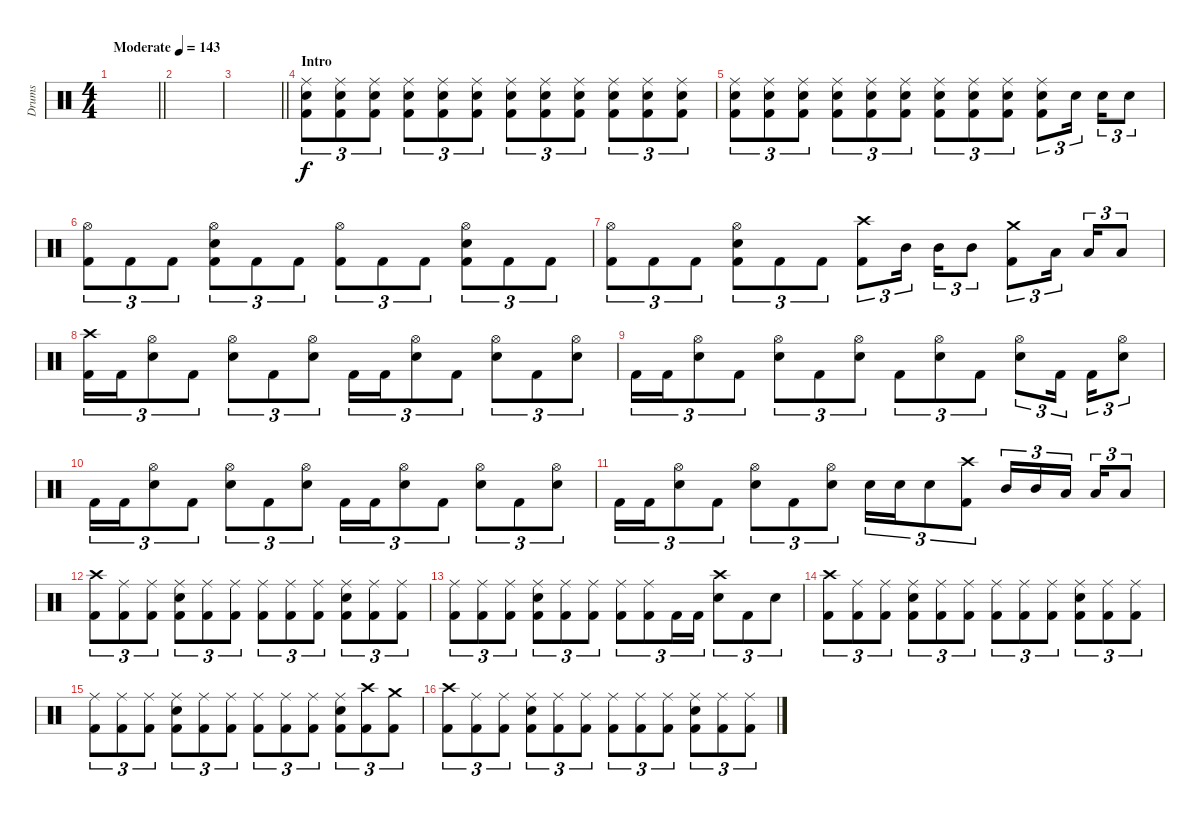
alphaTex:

\track ("Drums" "Drums") {instrument percussion}
\staff {score}
\articulation defaults
\ts (4 4)
\tempo (143 "Moderate")
\clef neutral
\barLineRight lightlight
\ks c
|
|
\barLineRight lightlight
|
\section ("" "Intro")
("Ride (middle)" "Snare (hit) 2" "Kick (hit) 2").8{tu (3 2)} ("Ride (middle)" "Snare (hit) 2" "Kick (hit) 2").8{tu (3 2)} ("Ride (middle)" "Snare (hit) 2" "Kick (hit) 2").8{tu (3 2)} ("Ride (middle)" "Snare (hit) 2" "Kick (hit) 2").8{tu (3 2)} ("Ride (middle)" "Snare (hit) 2" "Kick (hit) 2").8{tu (3 2)} ("Ride (middle)" "Snare (hit) 2" "Kick (hit) 2").8{tu (3 2)} ("Ride (middle)" "Snare (hit) 2" "Kick (hit) 2").8{tu (3 2)} ("Ride (middle)" "Snare (hit) 2" "Kick (hit) 2").8{tu (3 2)} ("Ride (middle)" "Snare (hit) 2" "Kick (hit) 2").8{tu (3 2)} ("Ride (middle)" "Snare (hit) 2" "Kick (hit) 2").8{tu (3 2)} ("Ride (middle)" "Snare (hit) 2" "Kick (hit) 2").8{tu (3 2)} ("Ride (middle)" "Snare (hit) 2" "Kick (hit) 2").8{tu (3 2)} |
("Ride (middle)" "Snare (hit) 2" "Kick (hit) 2").8{tu (3 2)} ("Ride (middle)" "Snare (hit) 2" "Kick (hit) 2").8{tu (3 2)} ("Ride (middle)" "Snare (hit) 2" "Kick (hit) 2").8{tu (3 2)} ("Ride (middle)" "Snare (hit) 2" "Kick (hit) 2").8{tu (3 2)} ("Ride (middle)" "Snare (hit) 2" "Kick (hit) 2").8{tu (3 2)} ("Ride (middle)" "Snare (hit) 2" "Kick (hit) 2").8{tu (3 2)} ("Ride (middle)" "Snare (hit) 2" "Kick (hit) 2").8{tu (3 2)} ("Ride (middle)" "Snare (hit) 2" "Kick (hit) 2").8{tu (3 2)} ("Ride (middle)" "Snare (hit) 2" "Kick (hit) 2").8{tu (3 2)} ("Ride (middle)" "Snare (hit) 2" "Kick (hit) 2").8{tu (3 2)} "Snare (hit) 2".16{tu (3 2) beam splitsecondary} "Snare (hit) 2".16{tu (3 2)} "Snare (hit) 2".8{tu (3 2)} |
("Hi-Hat (open)" "Kick (hit) 2").8{tu (3 2)} "Kick (hit) 2".8{tu (3 2)} "Kick (hit) 2".8{tu (3 2)} ("Hi-Hat (open)" "Snare (hit) 2" "Kick (hit) 2").8{tu (3 2)} "Kick (hit) 2".8{tu (3 2)} "Kick (hit) 2".8{tu (3 2)} ("Hi-Hat (open)" "Kick (hit) 2").8{tu (3 2)} "Kick (hit) 2".8{tu (3 2)} "Kick (hit) 2".8{tu (3 2)} ("Hi-Hat (open)" "Snare (hit) 2" "Kick (hit) 2").8{tu (3 2)} "Kick (hit) 2".8{tu (3 2)} "Kick (hit) 2".8{tu (3 2)} |
("Hi-Hat (open)" "Kick (hit) 2").8{tu (3 2)} "Kick (hit) 2".8{tu (3 2)} "Kick (hit) 2".8{tu (3 2)} ("Hi-Hat (open)" "Snare (hit) 2" "Kick (hit) 2").8{tu (3 2)} "Kick (hit) 2".8{tu (3 2)} "Kick (hit) 2".8{tu (3 2)} ("Crash high (hit)" "Kick (hit) 2").8{tu (3 2)} "Mid Tom (hit)".16{tu (3 2) beam splitsecondary} "Mid Tom (hit)".16{tu (3 2)} "Mid Tom (hit)".8{tu (3 2)} ("Crash medium (hit)" "Kick (hit) 2").8{tu (3 2)} "Low Tom (hit)".16{tu (3 2) beam splitsecondary} "Low Tom (hit)".16{tu (3 2)} "Low Tom (hit)".8{tu (3 2)} |
("Crash high (hit)" "Kick (hit) 2").16{tu (3 2)} "Kick (hit) 2".16{tu (3 2)} ("Hi-Hat (open)" "Snare (hit) 2").8{tu (3 2)} "Kick (hit) 2".8{tu (3 2)} ("Hi-Hat (open)" "Snare (hit) 2").8{tu (3 2)} "Kick (hit) 2".8{tu (3 2)} ("Hi-Hat (open)" "Snare (hit) 2").8{tu (3 2)} "Kick (hit) 2".16{tu (3 2)} "Kick (hit) 2".16{tu (3 2)} ("Hi-Hat (open)" "Snare (hit) 2").8{tu (3 2)} "Kick (hit) 2".8{tu (3 2)} ("Hi-Hat (open)" "Snare (hit) 2").8{tu (3 2)} "Kick (hit) 2".8{tu (3 2)} ("Hi-Hat (open)" "Snare (hit) 2").8{tu (3 2)} |
"Kick (hit) 2".16{tu (3 2)} "Kick (hit) 2".16{tu (3 2)} ("Hi-Hat (open)" "Snare (hit) 2").8{tu (3 2)} "Kick (hit) 2".8{tu (3 2)} ("Hi-Hat (open)" "Snare (hit) 2").8{tu (3 2)} "Kick (hit) 2".8{tu (3 2)} ("Hi-Hat (open)" "Snare (hit) 2").8{tu (3 2)} "Kick (hit) 2".8{tu (3 2)} ("Hi-Hat (open)" "Snare (hit) 2").8{tu (3 2)} "Kick (hit) 2".8{tu (3 2)} ("Hi-Hat (open)" "Snare (hit) 2").8{tu (3 2)} "Kick (hit) 2".16{tu (3 2) beam splitsecondary} "Kick (hit) 2".16{tu (3 2)} ("Hi-Hat (open)" "Snare (hit) 2").8{tu (3 2)} |
"Kick (hit) 2".16{tu (3 2)} "Kick (hit) 2".16{tu (3 2)} ("Hi-Hat (open)" "Snare (hit) 2").8{tu (3 2)} "Kick (hit) 2".8{tu (3 2)} ("Hi-Hat (open)" "Snare (hit) 2").8{tu (3 2)} "Kick (hit) 2".8{tu (3 2)} ("Hi-Hat (open)" "Snare (hit) 2").8{tu (3 2)} "Kick (hit) 2".16{tu (3 2)} "Kick (hit) 2".16{tu (3 2)} ("Hi-Hat (open)" "Snare (hit) 2").8{tu (3 2)} "Kick (hit) 2".8{tu (3 2)} ("Hi-Hat (open)" "Snare (hit) 2").8{tu (3 2)} "Kick (hit) 2".8{tu (3 2)} ("Hi-Hat (open)" "Snare (hit) 2").8{tu (3 2)} |
"Kick (hit) 2".16{tu (3 2)} "Kick (hit) 2".16{tu (3 2)} ("Hi-Hat (open)" "Snare (hit) 2").8{tu (3 2)} "Kick (hit) 2".8{tu (3 2)} ("Hi-Hat (open)" "Snare (hit) 2").8{tu (3 2)} "Kick (hit) 2".8{tu (3 2)} ("Hi-Hat (open)" "Snare (hit) 2").8{tu (3 2)} "Snare (hit) 2".16{tu (3 2)} "Snare (hit) 2".16{tu (3 2)} "Snare (hit) 2".8{tu (3 2)} ("Crash high (hit)" "Kick (hit) 2").8{tu (3 2)} "Mid Tom (hit)".16{tu (3 2)} "Mid Tom (hit)".16{tu (3 2)} "Low Tom (hit)".16{tu (3 2) beam splitsecondary} "Low Tom (hit)".16{tu (3 2)} "Low Tom (hit)".8{tu (3 2)} |
("Crash high (hit)" "Kick (hit) 2").8{tu (3 2)} ("Ride (middle)" "Kick (hit) 2").8{tu (3 2)} ("Ride (middle)" "Kick (hit) 2").8{tu (3 2)} ("Ride (middle)" "Snare (hit) 2" "Kick (hit) 2").8{tu (3 2)} ("Ride (middle)" "Kick (hit) 2").8{tu (3 2)} ("Ride (middle)" "Kick (hit) 2").8{tu (3 2)} ("Ride (middle)" "Kick (hit) 2").8{tu (3 2)} ("Ride (middle)" "Kick (hit) 2").8{tu (3 2)} ("Ride (middle)" "Kick (hit) 2").8{tu (3 2)} ("Ride (middle)" "Snare (hit) 2" "Kick (hit) 2").8{tu (3 2)} ("Ride (middle)" "Kick (hit) 2").8{tu (3 2)} ("Ride (middle)" "Kick (hit) 2").8{tu (3 2)} |
("Ride (middle)" "Kick (hit) 2").8{tu (3 2)} ("Ride (middle)" "Kick (hit) 2").8{tu (3 2)} ("Ride (middle)" "Kick (hit) 2").8{tu (3 2)} ("Ride (middle)" "Snare (hit) 2" "Kick (hit) 2").8{tu (3 2)} ("Ride (middle)" "Kick (hit) 2").8{tu (3 2)} ("Ride (middle)" "Kick (hit) 2").8{tu (3 2)} ("Ride (middle)" "Kick (hit) 2").8{tu (3 2)} ("Ride (middle)" "Kick (hit) 2").8{tu (3 2)} "Kick (hit) 2".16{tu (3 2)} "Kick (hit) 2".16{tu (3 2)} ("Crash high (hit)" "Snare (hit) 2").8{tu (3 2)} "Kick (hit) 2".8{tu (3 2)} "Snare (hit) 2".8{tu (3 2)} |
("Crash high (hit)" "Kick (hit) 2").8{tu (3 2)} ("Ride (middle)" "Kick (hit) 2").8{tu (3 2)} ("Ride (middle)" "Kick (hit) 2").8{tu (3 2)} ("Ride (middle)" "Snare (hit) 2" "Kick (hit) 2").8{tu (3 2)} ("Ride (middle)" "Kick (hit) 2").8{tu (3 2)} ("Ride (middle)" "Kick (hit) 2").8{tu (3 2)} ("Ride (middle)" "Kick (hit) 2").8{tu (3 2)} ("Ride (middle)" "Kick (hit) 2").8{tu (3 2)} ("Ride (middle)" "Kick (hit) 2").8{tu (3 2)} ("Ride (middle)" "Snare (hit) 2" "Kick (hit) 2").8{tu (3 2)} ("Ride (middle)" "Kick (hit) 2").8{tu (3 2)} ("Ride (middle)" "Kick (hit) 2").8{tu (3 2)} |
("Ride (middle)" "Kick (hit) 2").8{tu (3 2)} ("Ride (middle)" "Kick (hit) 2").8{tu (3 2)} ("Ride (middle)" "Kick (hit) 2").8{tu (3 2)} ("Ride (middle)" "Snare (hit) 2" "Kick (hit) 2").8{tu (3 2)} ("Ride (middle)" "Kick (hit) 2").8{tu (3 2)} ("Ride (middle)" "Kick (hit) 2").8{tu (3 2)} ("Ride (middle)" "Kick (hit) 2").8{tu (3 2)} ("Ride (middle)" "Kick (hit) 2").8{tu (3 2)} ("Ride (middle)" "Kick (hit) 2").8{tu (3 2)} ("Ride (middle)" "Snare (hit) 2" "Kick (hit) 2").8{tu (3 2)} ("Crash high (hit)" "Kick (hit) 2").8{tu (3 2)} ("Crash medium (hit)" "Kick (hit) 2").8{tu (3 2)} |
("Crash high (hit)" "Kick (hit) 2").8{tu (3 2)} ("Ride (middle)" "Kick (hit) 2").8{tu (3 2)} ("Ride (middle)" "Kick (hit) 2").8{tu (3 2)} ("Ride (middle)" "Snare (hit) 2" "Kick (hit) 2").8{tu (3 2)} ("Ride (middle)" "Kick (hit) 2").8{tu (3 2)} ("Ride (middle)" "Kick (hit) 2").8{tu (3 2)} ("Ride (middle)" "Kick (hit) 2").8{tu (3 2)} ("Ride (middle)" "Kick (hit) 2").8{tu (3 2)} ("Ride (middle)" "Kick (hit) 2").8{tu (3 2)} ("Ride (middle)" "Snare (hit) 2" "Kick (hit) 2").8{tu (3 2)} ("Ride (middle)" "Kick (hit) 2").8{tu (3 2)} ("Ride (middle)" "Kick (hit) 2").8{tu (3 2)}
